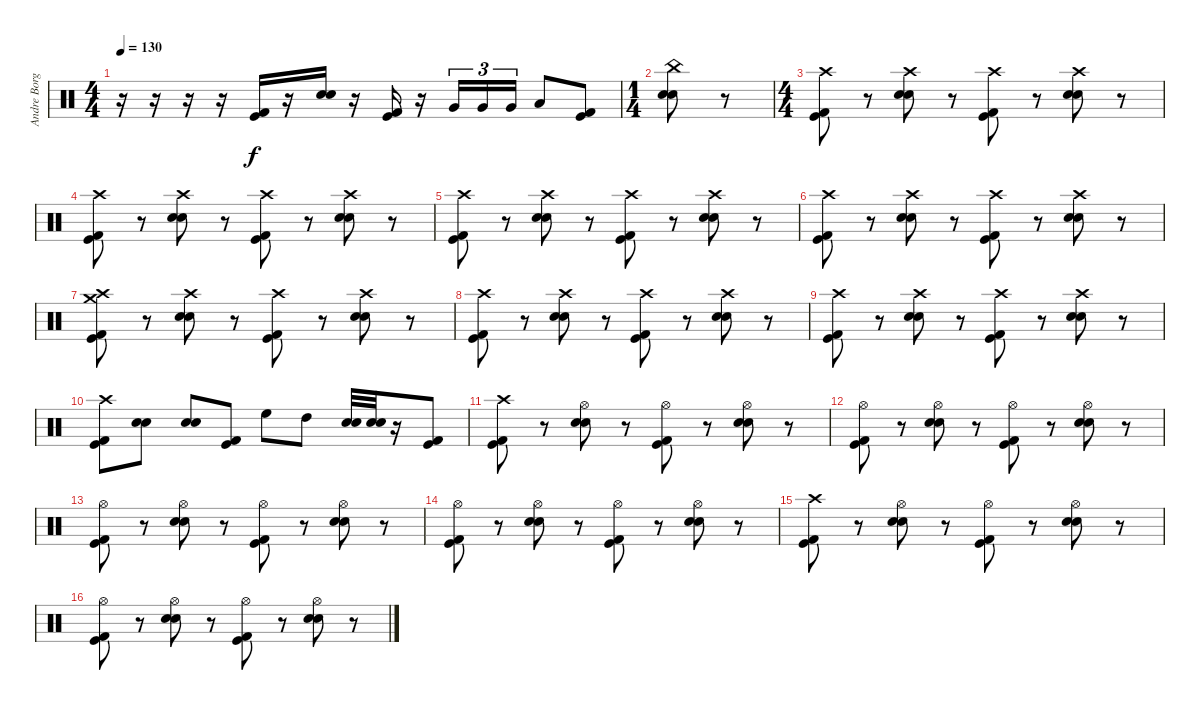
\track ("Andre Borgman" "Andre Borg") {instrument percussion}
\staff {score}
\articulation defaults
\ts (4 4)
\tempo 130
\clef neutral
\ks c
r.16{dy f} r.16 r.16 r.16 ("Kick (hit)" "Kick (hit) 2").16 r.16 ("Electric Snare (hit)" "Snare (hit) 2").16 r.16 ("Kick (hit)" "Kick (hit) 2").16 r.16 "Very Low Tom (hit)".16{tu (3 2)} "Very Low Tom (hit)".16{tu (3 2)} "Very Low Tom (hit)".16{tu (3 2)} "Low Floor Tom (hit)".8 ("Kick (hit)" "Kick (hit) 2").8 |
\ts (1 4)
("China (hit)" "Electric Snare (hit)" "Snare (hit) 2").8 r.8 |
\ts (4 4)
("Crash high (hit)" "Kick (hit)" "Kick (hit) 2").8 r.8 ("Crash high (hit)" "Electric Snare (hit)" "Snare (hit) 2").8 r.8 ("Crash high (hit)" "Kick (hit)" "Kick (hit) 2").8 r.8 ("Crash high (hit)" "Electric Snare (hit)" "Snare (hit) 2").8 r.8 |
("Crash high (hit)" "Kick (hit)" "Kick (hit) 2").8 r.8 ("Crash high (hit)" "Electric Snare (hit)" "Snare (hit) 2").8 r.8 ("Crash high (hit)" "Kick (hit)" "Kick (hit) 2").8 r.8 ("Crash high (hit)" "Electric Snare (hit)" "Snare (hit) 2").8 r.8 |
("Crash high (hit)" "Kick (hit)" "Kick (hit) 2").8 r.8 ("Crash high (hit)" "Electric Snare (hit)" "Snare (hit) 2").8 r.8 ("Crash high (hit)" "Kick (hit)" "Kick (hit) 2").8 r.8 ("Crash high (hit)" "Electric Snare (hit)" "Snare (hit) 2").8 r.8 |
("Crash high (hit)" "Kick (hit)" "Kick (hit) 2").8 r.8 ("Crash high (hit)" "Electric Snare (hit)" "Snare (hit) 2").8 r.8 ("Crash high (hit)" "Kick (hit)" "Kick (hit) 2").8 r.8 ("Crash high (hit)" "Electric Snare (hit)" "Snare (hit) 2").8 r.8 |
("Crash medium (hit)" "Crash high (hit)" "Kick (hit)" "Kick (hit) 2").8 r.8 ("Crash high (hit)" "Electric Snare (hit)" "Snare (hit) 2").8 r.8 ("Crash high (hit)" "Kick (hit)" "Kick (hit) 2").8 r.8 ("Crash high (hit)" "Electric Snare (hit)" "Snare (hit) 2").8 r.8 |
("Crash high (hit)" "Kick (hit)" "Kick (hit) 2").8 r.8 ("Crash high (hit)" "Electric Snare (hit)" "Snare (hit) 2").8 r.8 ("Crash high (hit)" "Kick (hit)" "Kick (hit) 2").8 r.8 ("Crash high (hit)" "Electric Snare (hit)" "Snare (hit) 2").8 r.8 |
("Crash high (hit)" "Kick (hit)" "Kick (hit) 2").8 r.8 ("Crash high (hit)" "Electric Snare (hit)" "Snare (hit) 2").8 r.8 ("Crash high (hit)" "Kick (hit)" "Kick (hit) 2").8 r.8 ("Crash high (hit)" "Electric Snare (hit)" "Snare (hit) 2").8 r.8 |
("Crash high (hit)" "Kick (hit)" "Kick (hit) 2").8 ("Electric Snare (hit)" "Snare (hit) 2").8 ("Electric Snare (hit)" "Snare (hit) 2").8 ("Kick (hit)" "Kick (hit) 2").8 "High Floor Tom (hit)".8 "High Tom (hit)".8 ("Electric Snare (hit)" "Snare (hit) 2").32 ("Electric Snare (hit)" "Snare (hit) 2").32 r.16 ("Kick (hit)" "Kick (hit) 2").8 |
("Crash high (hit)" "Kick (hit)" "Kick (hit) 2").8 r.8 ("Hi-Hat (open)" "Electric Snare (hit)" "Snare (hit) 2").8 r.8 ("Hi-Hat (open)" "Kick (hit)" "Kick (hit) 2").8 r.8 ("Hi-Hat (open)" "Electric Snare (hit)" "Snare (hit) 2").8 r.8 |
("Hi-Hat (open)" "Kick (hit)" "Kick (hit) 2").8 r.8 ("Hi-Hat (open)" "Electric Snare (hit)" "Snare (hit) 2").8 r.8 ("Hi-Hat (open)" "Kick (hit)" "Kick (hit) 2").8 r.8 ("Hi-Hat (open)" "Electric Snare (hit)" "Snare (hit) 2").8 r.8 |
("Hi-Hat (open)" "Kick (hit)" "Kick (hit) 2").8 r.8 ("Hi-Hat (open)" "Electric Snare (hit)" "Snare (hit) 2").8 r.8 ("Hi-Hat (open)" "Kick (hit)" "Kick (hit) 2").8 r.8 ("Hi-Hat (open)" "Electric Snare (hit)" "Snare (hit) 2").8 r.8 |
("Hi-Hat (open)" "Kick (hit)" "Kick (hit) 2").8 r.8 ("Hi-Hat (open)" "Electric Snare (hit)" "Snare (hit) 2").8 r.8 ("Hi-Hat (open)" "Kick (hit)" "Kick (hit) 2").8 r.8 ("Hi-Hat (open)" "Electric Snare (hit)" "Snare (hit) 2").8 r.8 |
("Crash high (hit)" "Kick (hit)" "Kick (hit) 2").8 r.8 ("Hi-Hat (open)" "Electric Snare (hit)" "Snare (hit) 2").8 r.8 ("Hi-Hat (open)" "Kick (hit)" "Kick (hit) 2").8 r.8 ("Hi-Hat (open)" "Electric Snare (hit)" "Snare (hit) 2").8 r.8 |
("Hi-Hat (open)" "Kick (hit)" "Kick (hit) 2").8 r.8 ("Hi-Hat (open)" "Electric Snare (hit)" "Snare (hit) 2").8 r.8 ("Hi-Hat (open)" "Kick (hit)" "Kick (hit) 2").8 r.8 ("Hi-Hat (open)" "Electric Snare (hit)" "Snare (hit) 2").8 r.8
